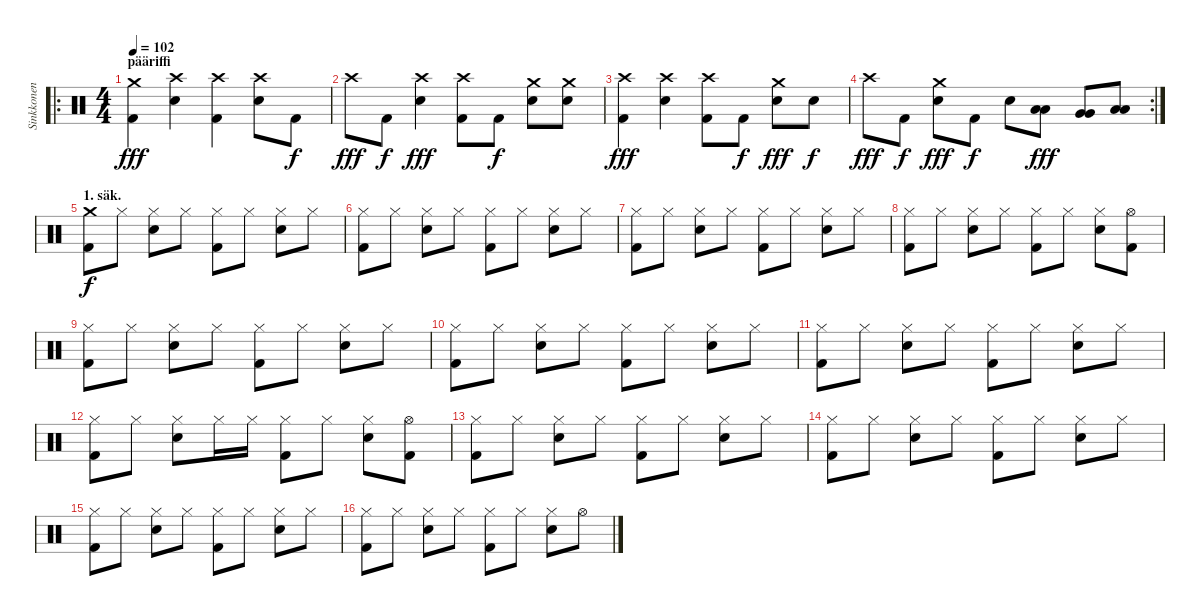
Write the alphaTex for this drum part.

\track ("Sinkkonen" "Sinkkonen") {instrument percussion}
\staff {score}
\articulation defaults
\ro
\ts (4 4)
\section ("" "pääriffi")
\tempo 102
\clef neutral
\ks c
("Kick (hit) 2" "Crash medium (hit)").4{dy fff} ("Crash high (hit)" "Snare (hit) 2").4 ("Kick (hit) 2" "Crash high (hit)").4 ("Crash high (hit)" "Snare (hit) 2").8 "Kick (hit) 2".8{dy f} |
"Crash high (hit)".8{dy fff} "Kick (hit) 2".8{dy f} ("Crash high (hit)" "Snare (hit) 2").4{dy fff} ("Kick (hit) 2" "Crash high (hit)").8 "Kick (hit) 2".8{dy f} ("Crash medium (hit)" "Snare (hit) 2").8 ("Crash medium (hit)" "Snare (hit) 2").8 |
("Kick (hit) 2" "Crash high (hit)").4{dy fff} ("Crash high (hit)" "Snare (hit) 2").4 ("Kick (hit) 2" "Crash high (hit)").8 "Kick (hit) 2".8{dy f} ("Crash medium (hit)" "Snare (hit) 2").8{dy fff} "Snare (hit) 2".8{dy f} |
\rc 2 "Crash high (hit)".8{dy fff} "Kick (hit) 2".8{dy f}
("Crash medium (hit)" "Snare (hit) 2").8{dy fff} "Kick (hit) 2".8{dy f} "Snare (hit) 2".8 ("Low Tom (hit)" "Low Tom (hit)").8{dy fff} ("Very Low Tom (hit)" "Very Low Tom (hit)").8 ("Low Floor Tom (hit)" "Low Floor Tom (hit)").8 |
\section ("" "1. säk.")
("Kick (hit) 2" "Crash medium (hit)").8{dy f} "Hi-Hat (closed)".8 ("Hi-Hat (closed)" "Snare (hit) 2").8 "Hi-Hat (closed)".8 ("Kick (hit) 2" "Hi-Hat (closed)").8 "Hi-Hat (closed)".8 ("Hi-Hat (closed)" "Snare (hit) 2").8 "Hi-Hat (closed)".8 |
("Kick (hit) 2" "Hi-Hat (closed)").8 "Hi-Hat (closed)".8 ("Hi-Hat (closed)" "Snare (hit) 2").8 "Hi-Hat (closed)".8 ("Kick (hit) 2" "Hi-Hat (closed)").8 "Hi-Hat (closed)".8 ("Hi-Hat (closed)" "Snare (hit) 2").8 "Hi-Hat (closed)".8 |
("Kick (hit) 2" "Hi-Hat (closed)").8 "Hi-Hat (closed)".8 ("Hi-Hat (closed)" "Snare (hit) 2").8 "Hi-Hat (closed)".8 ("Kick (hit) 2" "Hi-Hat (closed)").8 "Hi-Hat (closed)".8 ("Hi-Hat (closed)" "Snare (hit) 2").8 "Hi-Hat (closed)".8 |
("Kick (hit) 2" "Hi-Hat (closed)").8 "Hi-Hat (closed)".8 ("Hi-Hat (closed)" "Snare (hit) 2").8 "Hi-Hat (closed)".8 ("Kick (hit) 2" "Hi-Hat (closed)").8 "Hi-Hat (closed)".8 ("Hi-Hat (closed)" "Snare (hit) 2").8 ("Kick (hit) 2" "Hi-Hat (open)").8 |
("Kick (hit) 2" "Hi-Hat (closed)").8 "Hi-Hat (closed)".8 ("Hi-Hat (closed)" "Snare (hit) 2").8 "Hi-Hat (closed)".8 ("Kick (hit) 2" "Hi-Hat (closed)").8 "Hi-Hat (closed)".8 ("Hi-Hat (closed)" "Snare (hit) 2").8 "Hi-Hat (closed)".8 |
("Kick (hit) 2" "Hi-Hat (closed)").8 "Hi-Hat (closed)".8 ("Hi-Hat (closed)" "Snare (hit) 2").8 "Hi-Hat (closed)".8 ("Kick (hit) 2" "Hi-Hat (closed)").8 "Hi-Hat (closed)".8 ("Hi-Hat (closed)" "Snare (hit) 2").8 "Hi-Hat (closed)".8 |
("Kick (hit) 2" "Hi-Hat (closed)").8 "Hi-Hat (closed)".8 ("Hi-Hat (closed)" "Snare (hit) 2").8 "Hi-Hat (closed)".8 ("Kick (hit) 2" "Hi-Hat (closed)").8 "Hi-Hat (closed)".8 ("Hi-Hat (closed)" "Snare (hit) 2").8 "Hi-Hat (closed)".8 |
("Kick (hit) 2" "Hi-Hat (closed)").8 "Hi-Hat (closed)".8 ("Hi-Hat (closed)" "Snare (hit) 2").8 "Hi-Hat (closed)".16 "Hi-Hat (closed)".16 ("Kick (hit) 2" "Hi-Hat (closed)").8 "Hi-Hat (closed)".8 ("Hi-Hat (closed)" "Snare (hit) 2").8 ("Kick (hit) 2" "Hi-Hat (open)").8 |
("Kick (hit) 2" "Hi-Hat (closed)").8 "Hi-Hat (closed)".8 ("Hi-Hat (closed)" "Snare (hit) 2").8 "Hi-Hat (closed)".8 ("Kick (hit) 2" "Hi-Hat (closed)").8 "Hi-Hat (closed)".8 ("Hi-Hat (closed)" "Snare (hit) 2").8 "Hi-Hat (closed)".8 |
("Kick (hit) 2" "Hi-Hat (closed)").8 "Hi-Hat (closed)".8 ("Hi-Hat (closed)" "Snare (hit) 2").8 "Hi-Hat (closed)".8 ("Kick (hit) 2" "Hi-Hat (closed)").8 "Hi-Hat (closed)".8 ("Hi-Hat (closed)" "Snare (hit) 2").8 "Hi-Hat (closed)".8 |
("Kick (hit) 2" "Hi-Hat (closed)").8 "Hi-Hat (closed)".8 ("Hi-Hat (closed)" "Snare (hit) 2").8 "Hi-Hat (closed)".8 ("Kick (hit) 2" "Hi-Hat (closed)").8 "Hi-Hat (closed)".8 ("Hi-Hat (closed)" "Snare (hit) 2").8 "Hi-Hat (closed)".8 |
("Kick (hit) 2" "Hi-Hat (closed)").8 "Hi-Hat (closed)".8 ("Hi-Hat (closed)" "Snare (hit) 2").8 "Hi-Hat (closed)".8 ("Kick (hit) 2" "Hi-Hat (closed)").8 "Hi-Hat (closed)".8 ("Hi-Hat (closed)" "Snare (hit) 2").8 "Hi-Hat (open)".8
